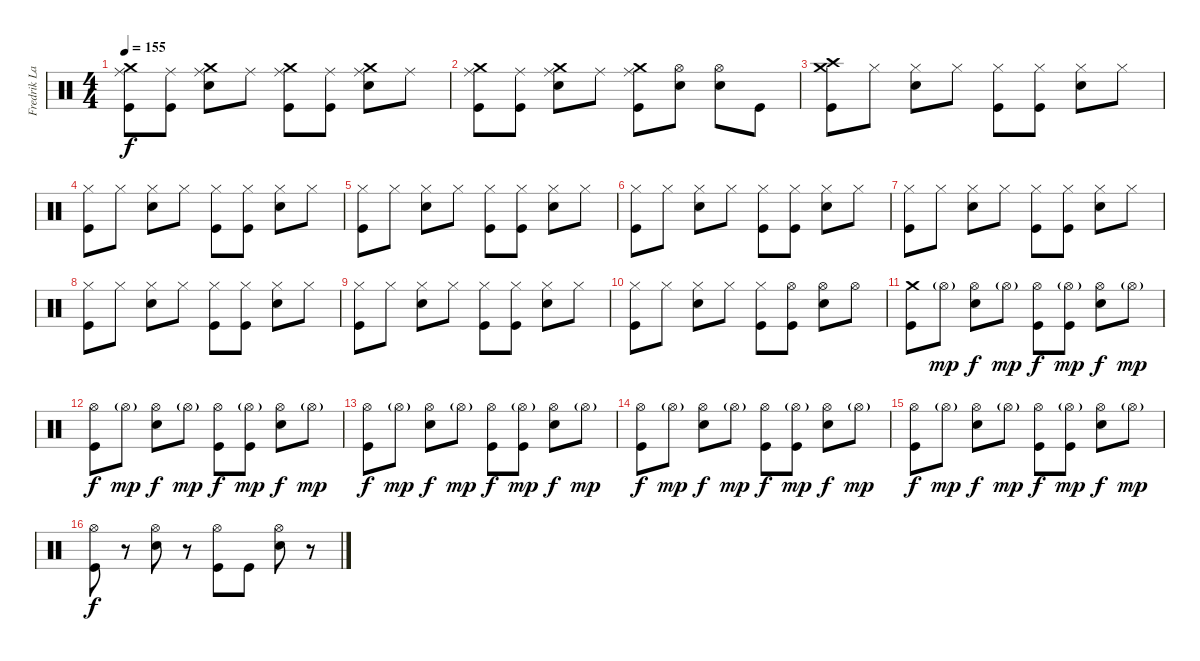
\track ("Fredrik Larzon Drums" "Fredrik La") {instrument percussion}
\staff {score}
\articulation defaults
\ts (4 4)
\tempo 155
\clef neutral
\ks c
("Ride (middle)" "Crash medium (hit)" "Kick (hit)").8{dy f} ("Ride (middle)" "Kick (hit)").8 ("Ride (middle)" "Crash medium (hit)" "Electric Snare (hit)").8 "Ride (middle)".8 ("Ride (middle)" "Crash medium (hit)" "Kick (hit)").8 ("Ride (middle)" "Kick (hit)").8 ("Ride (middle)" "Crash medium (hit)" "Electric Snare (hit)").8 "Ride (middle)".8 |
("Ride (middle)" "Crash medium (hit)" "Kick (hit)").8 ("Ride (middle)" "Kick (hit)").8 ("Ride (middle)" "Crash medium (hit)" "Electric Snare (hit)").8 "Ride (middle)".8 ("Ride (middle)" "Crash medium (hit)" "Kick (hit)").8 ("Hi-Hat (open)" "Electric Snare (hit)").8 ("Hi-Hat (open)" "Electric Snare (hit)").8 "Kick (hit)".8 |
("Crash high (hit)" "Crash medium (hit)" "Kick (hit)").8 "Hi-Hat (closed)".8 ("Hi-Hat (closed)" "Electric Snare (hit)").8 "Hi-Hat (closed)".8 ("Hi-Hat (closed)" "Kick (hit)").8 ("Hi-Hat (closed)" "Kick (hit)").8 ("Hi-Hat (closed)" "Electric Snare (hit)").8 "Hi-Hat (closed)".8 |
("Hi-Hat (closed)" "Kick (hit)").8 "Hi-Hat (closed)".8 ("Hi-Hat (closed)" "Electric Snare (hit)").8 "Hi-Hat (closed)".8 ("Hi-Hat (closed)" "Kick (hit)").8 ("Hi-Hat (closed)" "Kick (hit)").8 ("Hi-Hat (closed)" "Electric Snare (hit)").8 "Hi-Hat (closed)".8 |
("Hi-Hat (closed)" "Kick (hit)").8 "Hi-Hat (closed)".8 ("Hi-Hat (closed)" "Electric Snare (hit)").8 "Hi-Hat (closed)".8 ("Hi-Hat (closed)" "Kick (hit)").8 ("Hi-Hat (closed)" "Kick (hit)").8 ("Hi-Hat (closed)" "Electric Snare (hit)").8 "Hi-Hat (closed)".8 |
("Hi-Hat (closed)" "Kick (hit)").8 "Hi-Hat (closed)".8 ("Hi-Hat (closed)" "Electric Snare (hit)").8 "Hi-Hat (closed)".8 ("Hi-Hat (closed)" "Kick (hit)").8 ("Hi-Hat (closed)" "Kick (hit)").8 ("Hi-Hat (closed)" "Electric Snare (hit)").8 "Hi-Hat (closed)".8 |
("Hi-Hat (closed)" "Kick (hit)").8 "Hi-Hat (closed)".8 ("Hi-Hat (closed)" "Electric Snare (hit)").8 "Hi-Hat (closed)".8 ("Hi-Hat (closed)" "Kick (hit)").8 ("Hi-Hat (closed)" "Kick (hit)").8 ("Hi-Hat (closed)" "Electric Snare (hit)").8 "Hi-Hat (closed)".8 |
("Hi-Hat (closed)" "Kick (hit)").8 "Hi-Hat (closed)".8 ("Hi-Hat (closed)" "Electric Snare (hit)").8 "Hi-Hat (closed)".8 ("Hi-Hat (closed)" "Kick (hit)").8 ("Hi-Hat (closed)" "Kick (hit)").8 ("Hi-Hat (closed)" "Electric Snare (hit)").8 "Hi-Hat (closed)".8 |
("Hi-Hat (closed)" "Kick (hit)").8 "Hi-Hat (closed)".8 ("Hi-Hat (closed)" "Electric Snare (hit)").8 "Hi-Hat (closed)".8 ("Hi-Hat (closed)" "Kick (hit)").8 ("Hi-Hat (closed)" "Kick (hit)").8 ("Hi-Hat (closed)" "Electric Snare (hit)").8 "Hi-Hat (closed)".8 |
("Hi-Hat (closed)" "Kick (hit)").8 "Hi-Hat (closed)".8 ("Hi-Hat (closed)" "Electric Snare (hit)").8 "Hi-Hat (closed)".8 ("Hi-Hat (closed)" "Kick (hit)").8 ("Hi-Hat (open)" "Kick (hit)").8 ("Hi-Hat (open)" "Electric Snare (hit)").8 "Hi-Hat (open)".8 |
("Crash medium (hit)" "Kick (hit)").8 "Hi-Hat (open)"{g}.8{dy mp} ("Hi-Hat (open)" "Electric Snare (hit)").8{dy f} "Hi-Hat (open)"{g}.8{dy mp} ("Hi-Hat (open)" "Kick (hit)").8{dy f} ("Hi-Hat (open)"{g} "Kick (hit)").8{dy mp} ("Hi-Hat (open)" "Electric Snare (hit)").8{dy f} "Hi-Hat (open)"{g}.8{dy mp} |
("Hi-Hat (open)" "Kick (hit)").8{dy f} "Hi-Hat (open)"{g}.8{dy mp} ("Hi-Hat (open)" "Electric Snare (hit)").8{dy f} "Hi-Hat (open)"{g}.8{dy mp} ("Hi-Hat (open)" "Kick (hit)").8{dy f} ("Hi-Hat (open)"{g} "Kick (hit)").8{dy mp} ("Hi-Hat (open)" "Electric Snare (hit)").8{dy f} "Hi-Hat (open)"{g}.8{dy mp} |
("Hi-Hat (open)" "Kick (hit)").8{dy f} "Hi-Hat (open)"{g}.8{dy mp} ("Hi-Hat (open)" "Electric Snare (hit)").8{dy f} "Hi-Hat (open)"{g}.8{dy mp} ("Hi-Hat (open)" "Kick (hit)").8{dy f} ("Hi-Hat (open)"{g} "Kick (hit)").8{dy mp} ("Hi-Hat (open)" "Electric Snare (hit)").8{dy f} "Hi-Hat (open)"{g}.8{dy mp} |
("Hi-Hat (open)" "Kick (hit)").8{dy f} "Hi-Hat (open)"{g}.8{dy mp} ("Hi-Hat (open)" "Electric Snare (hit)").8{dy f} "Hi-Hat (open)"{g}.8{dy mp} ("Hi-Hat (open)" "Kick (hit)").8{dy f} ("Hi-Hat (open)"{g} "Kick (hit)").8{dy mp} ("Hi-Hat (open)" "Electric Snare (hit)").8{dy f} "Hi-Hat (open)"{g}.8{dy mp} |
("Hi-Hat (open)" "Kick (hit)").8{dy f} "Hi-Hat (open)"{g}.8{dy mp} ("Hi-Hat (open)" "Electric Snare (hit)").8{dy f} "Hi-Hat (open)"{g}.8{dy mp} ("Hi-Hat (open)" "Kick (hit)").8{dy f} ("Hi-Hat (open)"{g} "Kick (hit)").8{dy mp} ("Hi-Hat (open)" "Electric Snare (hit)").8{dy f} "Hi-Hat (open)"{g}.8{dy mp} |
("Hi-Hat (open)" "Kick (hit)").8{dy f} r.8 ("Hi-Hat (open)" "Electric Snare (hit)").8 r.8 ("Hi-Hat (open)" "Kick (hit)").8 "Kick (hit)".8 ("Hi-Hat (open)" "Electric Snare (hit)").8 r.8
